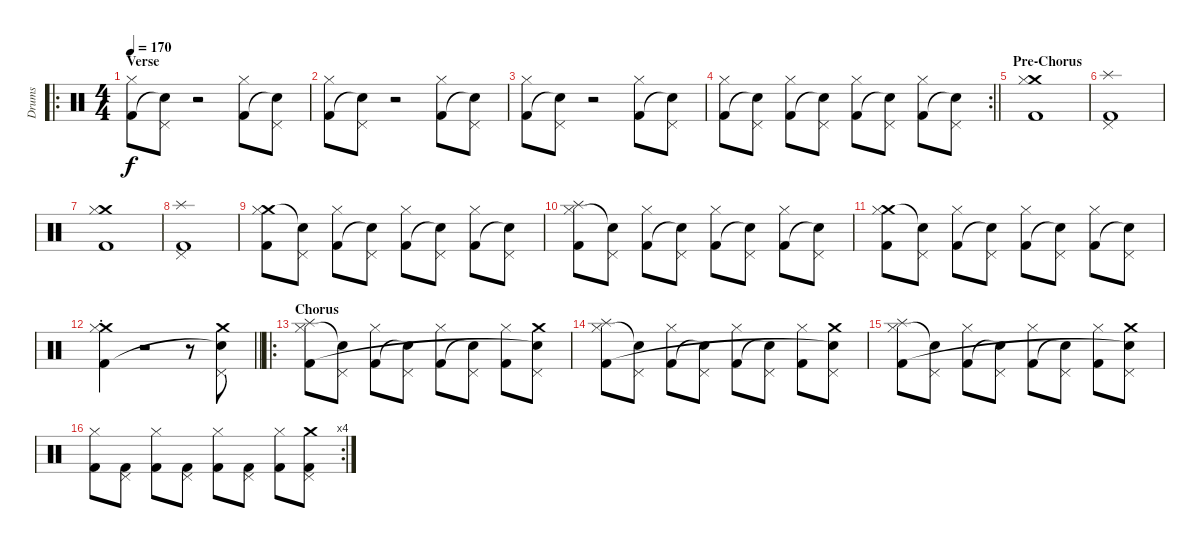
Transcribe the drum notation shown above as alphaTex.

\track ("Drums" "Drums") {instrument percussion}
\staff {score}
\articulation defaults
\ro
\ts (4 4)
\section ("" "Verse")
\tempo 170
\clef neutral
\ks c
("Hi-Hat (closed)" "Kick (hit) 2").8{dy f} ("Pedal Hi-Hat (hit)" "Snare (hit)"{t}).8 r.2 ("Hi-Hat (closed)" "Kick (hit) 2").8 ("Pedal Hi-Hat (hit)" "Snare (hit)"{t}).8 |
("Hi-Hat (closed)" "Kick (hit) 2").8 ("Pedal Hi-Hat (hit)" "Snare (hit)"{t}).8 r.2 ("Hi-Hat (closed)" "Kick (hit) 2").8 ("Pedal Hi-Hat (hit)" "Snare (hit)"{t}).8 |
("Hi-Hat (closed)" "Kick (hit) 2").8 ("Pedal Hi-Hat (hit)" "Snare (hit)"{t}).8 r.2 ("Hi-Hat (closed)" "Kick (hit) 2").8 ("Pedal Hi-Hat (hit)" "Snare (hit)"{t}).8 |
\rc 2
\barLineRight lightlight
("Hi-Hat (closed)" "Kick (hit) 2").8 ("Pedal Hi-Hat (hit)" "Snare (hit)"{t}).8 ("Hi-Hat (closed)" "Kick (hit) 2").8 ("Pedal Hi-Hat (hit)" "Snare (hit)"{t}).8 ("Hi-Hat (closed)" "Kick (hit) 2").8 ("Pedal Hi-Hat (hit)" "Snare (hit)"{t}).8 ("Hi-Hat (closed)" "Kick (hit) 2").8 ("Pedal Hi-Hat (hit)" "Snare (hit)"{t}).8 |
\section ("" "Pre-Chorus")
("Crash medium (hit)" "Hi-Hat (closed)" "Kick (hit) 2").1 |
("Splash (hit)" "Pedal Hi-Hat (hit)" "Kick (hit) 2").1 |
("Crash medium (hit)" "Hi-Hat (closed)" "Kick (hit) 2").1 |
("Splash (hit)" "Pedal Hi-Hat (hit)" "Kick (hit) 2").1 |
("Crash medium (hit)" "Hi-Hat (closed)" "Kick (hit) 2").8 ("Pedal Hi-Hat (hit)" "Snare (hit)"{t}).8 ("Hi-Hat (closed)" "Kick (hit) 2").8 ("Pedal Hi-Hat (hit)" "Snare (hit)"{t}).8 ("Hi-Hat (closed)" "Kick (hit) 2").8 ("Pedal Hi-Hat (hit)" "Snare (hit)"{t}).8 ("Hi-Hat (closed)" "Kick (hit) 2").8 ("Pedal Hi-Hat (hit)" "Snare (hit)"{t}).8 |
("Splash (hit)" "Hi-Hat (closed)" "Kick (hit) 2").8 ("Pedal Hi-Hat (hit)" "Snare (hit)"{t}).8 ("Hi-Hat (closed)" "Kick (hit) 2").8 ("Pedal Hi-Hat (hit)" "Snare (hit)"{t}).8 ("Hi-Hat (closed)" "Kick (hit) 2").8 ("Pedal Hi-Hat (hit)" "Snare (hit)"{t}).8 ("Hi-Hat (closed)" "Kick (hit) 2").8 ("Pedal Hi-Hat (hit)" "Snare (hit)"{t}).8 |
("Crash medium (hit)" "Hi-Hat (closed)" "Kick (hit) 2").8 ("Pedal Hi-Hat (hit)" "Snare (hit)"{t}).8 ("Hi-Hat (closed)" "Kick (hit) 2").8 ("Pedal Hi-Hat (hit)" "Snare (hit)"{t}).8 ("Hi-Hat (closed)" "Kick (hit) 2").8 ("Pedal Hi-Hat (hit)" "Snare (hit)"{t}).8 ("Hi-Hat (closed)" "Kick (hit) 2").8 ("Pedal Hi-Hat (hit)" "Snare (hit)"{t}).8 |
\barLineRight lightlight
("Crash medium (hit)"{st} "Hi-Hat (closed)"{st} "Kick (hit) 2"{st}).4 r.2 r.8 ("Crash medium (hit)" "Pedal Hi-Hat (hit)" "Snare (hit)"{t}).8 |
\ro
\section ("" "Chorus")
("Splash (hit)" "Hi-Hat (closed)" "Kick (hit) 2").8 ("Pedal Hi-Hat (hit)" "Snare (hit)"{t}).8 ("Hi-Hat (closed)" "Kick (hit) 2").8 ("Pedal Hi-Hat (hit)" "Snare (hit)"{t}).8 ("Hi-Hat (closed)" "Kick (hit) 2").8 ("Pedal Hi-Hat (hit)" "Snare (hit)"{t}).8 ("Hi-Hat (closed)" "Kick (hit) 2").8 ("Crash medium (hit)" "Pedal Hi-Hat (hit)" "Snare (hit)"{t}).8 |
("Splash (hit)" "Hi-Hat (closed)" "Kick (hit) 2").8 ("Pedal Hi-Hat (hit)" "Snare (hit)"{t}).8 ("Hi-Hat (closed)" "Kick (hit) 2").8 ("Pedal Hi-Hat (hit)" "Snare (hit)"{t}).8 ("Hi-Hat (closed)" "Kick (hit) 2").8 ("Pedal Hi-Hat (hit)" "Snare (hit)"{t}).8 ("Hi-Hat (closed)" "Kick (hit) 2").8 ("Crash medium (hit)" "Pedal Hi-Hat (hit)" "Snare (hit)"{t}).8 |
("Splash (hit)" "Hi-Hat (closed)" "Kick (hit) 2").8 ("Pedal Hi-Hat (hit)" "Snare (hit)"{t}).8 ("Hi-Hat (closed)" "Kick (hit) 2").8 ("Pedal Hi-Hat (hit)" "Snare (hit)"{t}).8 ("Hi-Hat (closed)" "Kick (hit) 2").8 ("Pedal Hi-Hat (hit)" "Snare (hit)"{t}).8 ("Hi-Hat (closed)" "Kick (hit) 2").8 ("Crash medium (hit)" "Pedal Hi-Hat (hit)" "Snare (hit)"{t}).8 |
\rc 4
("Hi-Hat (closed)" "Kick (hit) 2").8 ("Pedal Hi-Hat (hit)" "Kick (hit) 2").8 ("Hi-Hat (closed)" "Kick (hit) 2").8 ("Pedal Hi-Hat (hit)" "Kick (hit) 2").8 ("Hi-Hat (closed)" "Kick (hit) 2").8 ("Pedal Hi-Hat (hit)" "Kick (hit) 2").8 ("Hi-Hat (closed)" "Kick (hit) 2").8 ("Crash medium (hit)" "Pedal Hi-Hat (hit)" "Kick (hit) 2").8
